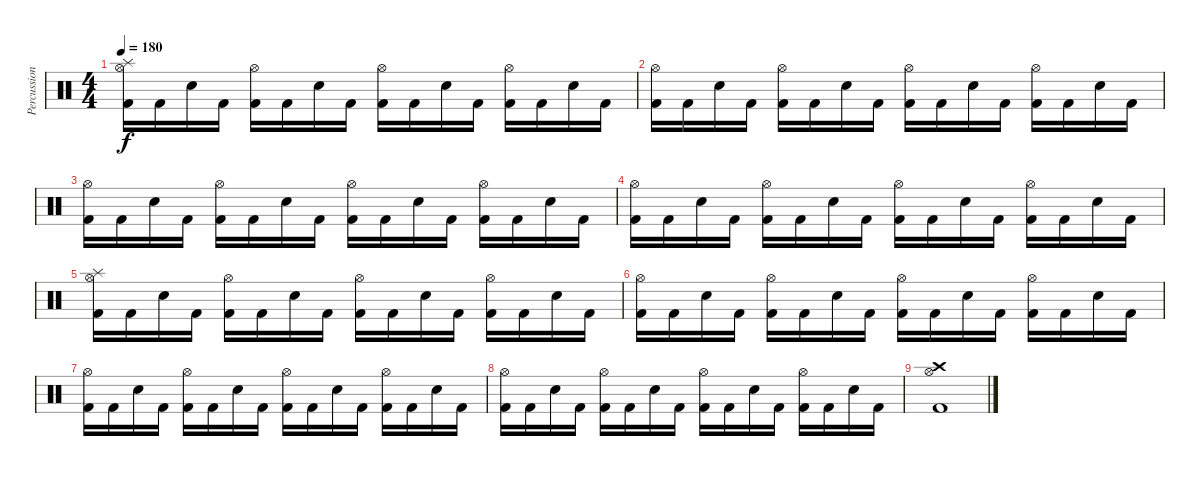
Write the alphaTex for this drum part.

\track ("Percussions" "Percussion") {instrument percussion}
\staff {score}
\articulation defaults
\ts (4 4)
\tempo 180
\clef neutral
\ks c
("Splash (hit)" "Hi-Hat (open)" "Kick (hit) 2").16{dy f} "Kick (hit) 2".16 "Electric Snare (hit)".16 "Kick (hit) 2".16 ("Hi-Hat (open)" "Kick (hit) 2").16 "Kick (hit) 2".16 "Electric Snare (hit)".16 "Kick (hit) 2".16 ("Hi-Hat (open)" "Kick (hit) 2").16 "Kick (hit) 2".16 "Electric Snare (hit)".16 "Kick (hit) 2".16 ("Hi-Hat (open)" "Kick (hit) 2").16 "Kick (hit) 2".16 "Electric Snare (hit)".16 "Kick (hit) 2".16 |
("Hi-Hat (open)" "Kick (hit) 2").16 "Kick (hit) 2".16 "Electric Snare (hit)".16 "Kick (hit) 2".16 ("Hi-Hat (open)" "Kick (hit) 2").16 "Kick (hit) 2".16 "Electric Snare (hit)".16 "Kick (hit) 2".16 ("Hi-Hat (open)" "Kick (hit) 2").16 "Kick (hit) 2".16 "Electric Snare (hit)".16 "Kick (hit) 2".16 ("Hi-Hat (open)" "Kick (hit) 2").16 "Kick (hit) 2".16 "Electric Snare (hit)".16 "Kick (hit) 2".16 |
("Hi-Hat (open)" "Kick (hit) 2").16 "Kick (hit) 2".16 "Electric Snare (hit)".16 "Kick (hit) 2".16 ("Hi-Hat (open)" "Kick (hit) 2").16 "Kick (hit) 2".16 "Electric Snare (hit)".16 "Kick (hit) 2".16 ("Hi-Hat (open)" "Kick (hit) 2").16 "Kick (hit) 2".16 "Electric Snare (hit)".16 "Kick (hit) 2".16 ("Hi-Hat (open)" "Kick (hit) 2").16 "Kick (hit) 2".16 "Electric Snare (hit)".16 "Kick (hit) 2".16 |
("Hi-Hat (open)" "Kick (hit) 2").16 "Kick (hit) 2".16 "Electric Snare (hit)".16 "Kick (hit) 2".16 ("Hi-Hat (open)" "Kick (hit) 2").16 "Kick (hit) 2".16 "Electric Snare (hit)".16 "Kick (hit) 2".16 ("Hi-Hat (open)" "Kick (hit) 2").16 "Kick (hit) 2".16 "Electric Snare (hit)".16 "Kick (hit) 2".16 ("Hi-Hat (open)" "Kick (hit) 2").16 "Kick (hit) 2".16 "Electric Snare (hit)".16 "Kick (hit) 2".16 |
("Splash (hit)" "Hi-Hat (open)" "Kick (hit) 2").16 "Kick (hit) 2".16 "Electric Snare (hit)".16 "Kick (hit) 2".16 ("Hi-Hat (open)" "Kick (hit) 2").16 "Kick (hit) 2".16 "Electric Snare (hit)".16 "Kick (hit) 2".16 ("Hi-Hat (open)" "Kick (hit) 2").16 "Kick (hit) 2".16 "Electric Snare (hit)".16 "Kick (hit) 2".16 ("Hi-Hat (open)" "Kick (hit) 2").16 "Kick (hit) 2".16 "Electric Snare (hit)".16 "Kick (hit) 2".16 |
("Hi-Hat (open)" "Kick (hit) 2").16 "Kick (hit) 2".16 "Electric Snare (hit)".16 "Kick (hit) 2".16 ("Hi-Hat (open)" "Kick (hit) 2").16 "Kick (hit) 2".16 "Electric Snare (hit)".16 "Kick (hit) 2".16 ("Hi-Hat (open)" "Kick (hit) 2").16 "Kick (hit) 2".16 "Electric Snare (hit)".16 "Kick (hit) 2".16 ("Hi-Hat (open)" "Kick (hit) 2").16 "Kick (hit) 2".16 "Electric Snare (hit)".16 "Kick (hit) 2".16 |
("Hi-Hat (open)" "Kick (hit) 2").16 "Kick (hit) 2".16 "Electric Snare (hit)".16 "Kick (hit) 2".16 ("Hi-Hat (open)" "Kick (hit) 2").16 "Kick (hit) 2".16 "Electric Snare (hit)".16 "Kick (hit) 2".16 ("Hi-Hat (open)" "Kick (hit) 2").16 "Kick (hit) 2".16 "Electric Snare (hit)".16 "Kick (hit) 2".16 ("Hi-Hat (open)" "Kick (hit) 2").16 "Kick (hit) 2".16 "Electric Snare (hit)".16 "Kick (hit) 2".16 |
("Hi-Hat (open)" "Kick (hit) 2").16 "Kick (hit) 2".16 "Electric Snare (hit)".16 "Kick (hit) 2".16 ("Hi-Hat (open)" "Kick (hit) 2").16 "Kick (hit) 2".16 "Electric Snare (hit)".16 "Kick (hit) 2".16 ("Hi-Hat (open)" "Kick (hit) 2").16 "Kick (hit) 2".16 "Electric Snare (hit)".16 "Kick (hit) 2".16 ("Hi-Hat (open)" "Kick (hit) 2").16 "Kick (hit) 2".16 "Electric Snare (hit)".16 "Kick (hit) 2".16 |
("Crash high (hit)" "Hi-Hat (open)" "Kick (hit) 2").1
